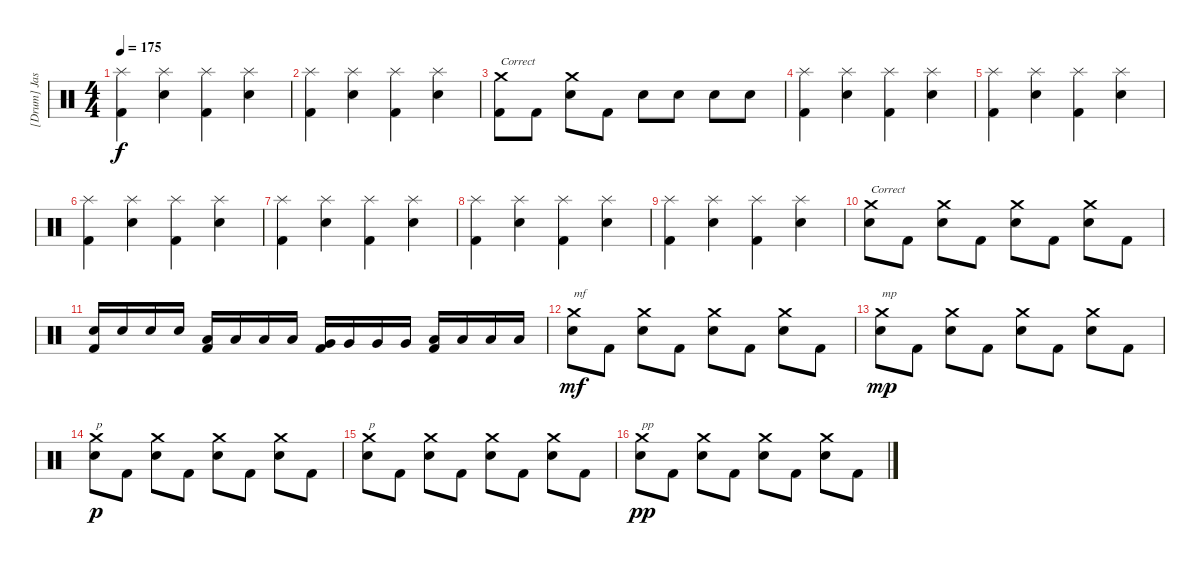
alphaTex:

\track ("[Drum] Jason \"Shakes\" West" "[Drum] Jas") {instrument percussion}
\staff {score}
\articulation defaults
\ts (4 4)
\tempo 175
\clef neutral
\ks c
("Splash (hit)" "Kick (hit) 2").4{dy f} ("Splash (hit)" "Electric Snare (hit)").4 ("Splash (hit)" "Kick (hit) 2").4 ("Splash (hit)" "Electric Snare (hit)").4 |
("Splash (hit)" "Kick (hit) 2").4 ("Splash (hit)" "Electric Snare (hit)").4 ("Splash (hit)" "Kick (hit) 2").4 ("Splash (hit)" "Electric Snare (hit)").4 |
("Kick (hit) 2" "Crash medium (hit)").8{txt "Correct"} "Kick (hit) 2".8 ("Crash medium (hit)" "Electric Snare (hit)").8 "Kick (hit) 2".8 "Electric Snare (hit)".8 "Electric Snare (hit)".8 "Electric Snare (hit)".8 "Electric Snare (hit)".8 |
("Splash (hit)" "Kick (hit) 2").4 ("Splash (hit)" "Electric Snare (hit)").4 ("Splash (hit)" "Kick (hit) 2").4 ("Splash (hit)" "Electric Snare (hit)").4 |
("Splash (hit)" "Kick (hit) 2").4 ("Splash (hit)" "Electric Snare (hit)").4 ("Splash (hit)" "Kick (hit) 2").4 ("Splash (hit)" "Electric Snare (hit)").4 |
("Splash (hit)" "Kick (hit) 2").4 ("Splash (hit)" "Electric Snare (hit)").4 ("Splash (hit)" "Kick (hit) 2").4 ("Splash (hit)" "Electric Snare (hit)").4 |
("Splash (hit)" "Kick (hit) 2").4 ("Splash (hit)" "Electric Snare (hit)").4 ("Splash (hit)" "Kick (hit) 2").4 ("Splash (hit)" "Electric Snare (hit)").4 |
("Splash (hit)" "Kick (hit) 2").4 ("Splash (hit)" "Electric Snare (hit)").4 ("Splash (hit)" "Kick (hit) 2").4 ("Splash (hit)" "Electric Snare (hit)").4 |
("Splash (hit)" "Kick (hit) 2").4 ("Splash (hit)" "Electric Snare (hit)").4 ("Splash (hit)" "Kick (hit) 2").4 ("Splash (hit)" "Electric Snare (hit)").4 |
("Crash medium (hit)" "Electric Snare (hit)").8{txt "Correct"} "Kick (hit) 2".8 ("Crash medium (hit)" "Electric Snare (hit)").8 "Kick (hit) 2".8 ("Crash medium (hit)" "Electric Snare (hit)").8 "Kick (hit) 2".8 ("Crash medium (hit)" "Electric Snare (hit)").8 "Kick (hit) 2".8 |
("Electric Snare (hit)" "Kick (hit) 2").16 "Electric Snare (hit)".16 "Electric Snare (hit)".16 "Electric Snare (hit)".16 ("Low Tom (hit)" "Kick (hit) 2").16 "Low Tom (hit)".16 "Low Tom (hit)".16 "Low Tom (hit)".16 ("Very Low Tom (hit)" "Kick (hit) 2").16 "Very Low Tom (hit)".16 "Very Low Tom (hit)".16 "Very Low Tom (hit)".16 ("Low Floor Tom (hit)" "Kick (hit) 2").16 "Low Floor Tom (hit)".16 "Low Floor Tom (hit)".16 "Low Floor Tom (hit)".16 |
("Crash medium (hit)" "Electric Snare (hit)").8{txt "mf" dy mf} "Kick (hit) 2".8 ("Crash medium (hit)" "Electric Snare (hit)").8 "Kick (hit) 2".8 ("Crash medium (hit)" "Electric Snare (hit)").8 "Kick (hit) 2".8 ("Crash medium (hit)" "Electric Snare (hit)").8 "Kick (hit) 2".8 |
("Crash medium (hit)" "Electric Snare (hit)").8{txt "mp" dy mp} "Kick (hit) 2".8 ("Crash medium (hit)" "Electric Snare (hit)").8 "Kick (hit) 2".8 ("Crash medium (hit)" "Electric Snare (hit)").8 "Kick (hit) 2".8 ("Crash medium (hit)" "Electric Snare (hit)").8 "Kick (hit) 2".8 |
("Crash medium (hit)" "Electric Snare (hit)").8{txt "p" dy p} "Kick (hit) 2".8 ("Crash medium (hit)" "Electric Snare (hit)").8 "Kick (hit) 2".8 ("Crash medium (hit)" "Electric Snare (hit)").8 "Kick (hit) 2".8 ("Crash medium (hit)" "Electric Snare (hit)").8 "Kick (hit) 2".8 |
("Crash medium (hit)" "Electric Snare (hit)").8{txt "p"} "Kick (hit) 2".8 ("Crash medium (hit)" "Electric Snare (hit)").8 "Kick (hit) 2".8 ("Crash medium (hit)" "Electric Snare (hit)").8 "Kick (hit) 2".8 ("Crash medium (hit)" "Electric Snare (hit)").8 "Kick (hit) 2".8 |
("Crash medium (hit)" "Electric Snare (hit)").8{txt "pp" dy pp} "Kick (hit) 2".8 ("Crash medium (hit)" "Electric Snare (hit)").8 "Kick (hit) 2".8 ("Crash medium (hit)" "Electric Snare (hit)").8 "Kick (hit) 2".8 ("Crash medium (hit)" "Electric Snare (hit)").8 "Kick (hit) 2".8
